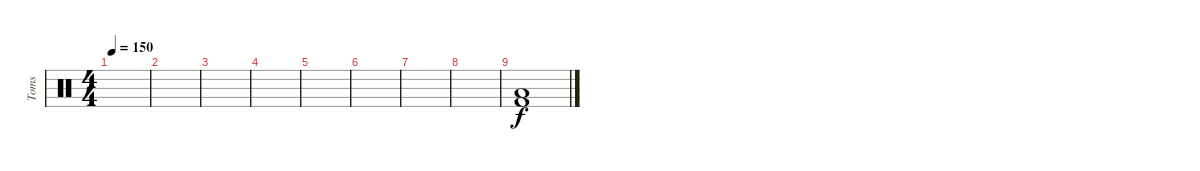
\track ("Toms" "Toms") {instrument percussion}
\staff {score}
\articulation defaults
\ts (4 4)
\tempo 150
\clef neutral
\ks c
|
|
|
|
|
|
|
|
("Low Tom (hit)" "Kick (hit) 2").1
